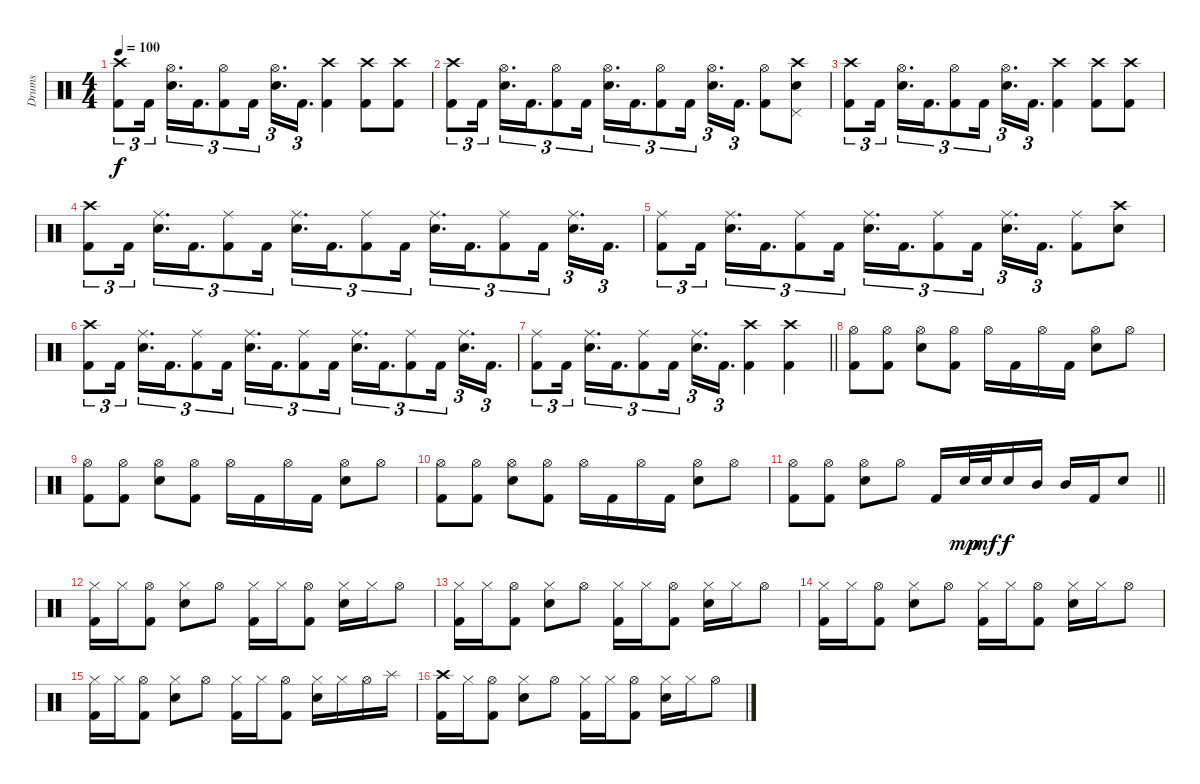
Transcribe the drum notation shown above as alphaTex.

\track ("Drums" "Drums") {instrument percussion}
\staff {score}
\articulation defaults
\ts (4 4)
\tempo 100
\clef neutral
\ks c
("Kick (hit) 2" "Crash high (hit)").8{tu (3 2) dy f} "Kick (hit) 2".16{tu (3 2) beam splitsecondary} ("Hi-Hat (open)" "Electric Snare (hit)").16{d tu (3 2)} "Kick (hit) 2".16{d tu (3 2)} ("Kick (hit) 2" "Hi-Hat (open)").8{tu (3 2)} "Kick (hit) 2".16{tu (3 2) beam splitsecondary} ("Hi-Hat (open)" "Electric Snare (hit)").16{d tu (3 2)} "Kick (hit) 2".16{d tu (3 2)} ("Kick (hit) 2" "Crash high (hit)").4 ("Kick (hit) 2" "Crash high (hit)").8 ("Kick (hit) 2" "Crash high (hit)").8 |
("Kick (hit) 2" "Crash high (hit)").8{tu (3 2)} "Kick (hit) 2".16{tu (3 2) beam splitsecondary} ("Hi-Hat (open)" "Electric Snare (hit)").16{d tu (3 2)} "Kick (hit) 2".16{d tu (3 2)} ("Kick (hit) 2" "Hi-Hat (open)").8{tu (3 2)} "Kick (hit) 2".16{tu (3 2) beam splitsecondary} ("Hi-Hat (open)" "Electric Snare (hit)").16{d tu (3 2)} "Kick (hit) 2".16{d tu (3 2)} ("Kick (hit) 2" "Hi-Hat (open)").8{tu (3 2)} "Kick (hit) 2".16{tu (3 2) beam splitsecondary} ("Hi-Hat (open)" "Electric Snare (hit)").16{d tu (3 2)} "Kick (hit) 2".16{d tu (3 2)} ("Kick (hit) 2" "Hi-Hat (open)").8 ("Crash high (hit)" "Electric Snare (hit)" "Pedal Hi-Hat (hit)").8 |
("Kick (hit) 2" "Crash high (hit)").8{tu (3 2)} "Kick (hit) 2".16{tu (3 2) beam splitsecondary} ("Hi-Hat (open)" "Electric Snare (hit)").16{d tu (3 2)} "Kick (hit) 2".16{d tu (3 2)} ("Kick (hit) 2" "Hi-Hat (open)").8{tu (3 2)} "Kick (hit) 2".16{tu (3 2) beam splitsecondary} ("Hi-Hat (open)" "Electric Snare (hit)").16{d tu (3 2)} "Kick (hit) 2".16{d tu (3 2)} ("Kick (hit) 2" "Crash high (hit)").4 ("Kick (hit) 2" "Crash high (hit)").8 ("Kick (hit) 2" "Crash high (hit)").8 |
("Kick (hit) 2" "Crash high (hit)").8{tu (3 2)} "Kick (hit) 2".16{tu (3 2) beam splitsecondary} ("Electric Snare (hit)" "Ride (middle)").16{d tu (3 2)} "Kick (hit) 2".16{d tu (3 2)} ("Kick (hit) 2" "Ride (middle)").8{tu (3 2)} "Kick (hit) 2".16{tu (3 2) beam splitsecondary} ("Electric Snare (hit)" "Ride (middle)").16{d tu (3 2)} "Kick (hit) 2".16{d tu (3 2)} ("Kick (hit) 2" "Ride (middle)").8{tu (3 2)} "Kick (hit) 2".16{tu (3 2) beam splitsecondary} ("Electric Snare (hit)" "Ride (middle)").16{d tu (3 2)} "Kick (hit) 2".16{d tu (3 2)} ("Kick (hit) 2" "Ride (middle)").8{tu (3 2)} "Kick (hit) 2".16{tu (3 2) beam splitsecondary} ("Electric Snare (hit)" "Ride (middle)").16{d tu (3 2)} "Kick (hit) 2".16{d tu (3 2)} |
("Kick (hit) 2" "Ride (middle)").8{tu (3 2)} "Kick (hit) 2".16{tu (3 2) beam splitsecondary} ("Electric Snare (hit)" "Ride (middle)").16{d tu (3 2)} "Kick (hit) 2".16{d tu (3 2)} ("Kick (hit) 2" "Ride (middle)").8{tu (3 2)} "Kick (hit) 2".16{tu (3 2) beam splitsecondary} ("Electric Snare (hit)" "Ride (middle)").16{d tu (3 2)} "Kick (hit) 2".16{d tu (3 2)} ("Kick (hit) 2" "Ride (middle)").8{tu (3 2)} "Kick (hit) 2".16{tu (3 2) beam splitsecondary} ("Electric Snare (hit)" "Ride (middle)").16{d tu (3 2)} "Kick (hit) 2".16{d tu (3 2)} ("Kick (hit) 2" "Ride (middle)").8 ("Crash high (hit)" "Electric Snare (hit)").8 |
("Kick (hit) 2" "Crash high (hit)").8{tu (3 2)} "Kick (hit) 2".16{tu (3 2) beam splitsecondary} ("Electric Snare (hit)" "Ride (middle)").16{d tu (3 2)} "Kick (hit) 2".16{d tu (3 2)} ("Kick (hit) 2" "Ride (middle)").8{tu (3 2)} "Kick (hit) 2".16{tu (3 2) beam splitsecondary} ("Electric Snare (hit)" "Ride (middle)").16{d tu (3 2)} "Kick (hit) 2".16{d tu (3 2)} ("Kick (hit) 2" "Ride (middle)").8{tu (3 2)} "Kick (hit) 2".16{tu (3 2) beam splitsecondary} ("Electric Snare (hit)" "Ride (middle)").16{d tu (3 2)} "Kick (hit) 2".16{d tu (3 2)} ("Kick (hit) 2" "Ride (middle)").8{tu (3 2)} "Kick (hit) 2".16{tu (3 2) beam splitsecondary} ("Electric Snare (hit)" "Ride (middle)").16{d tu (3 2)} "Kick (hit) 2".16{d tu (3 2)} |
\barLineRight lightlight
("Kick (hit) 2" "Ride (middle)").8{tu (3 2)} "Kick (hit) 2".16{tu (3 2) beam splitsecondary} ("Electric Snare (hit)" "Ride (middle)").16{d tu (3 2)} "Kick (hit) 2".16{d tu (3 2)} ("Kick (hit) 2" "Ride (middle)").8{tu (3 2)} "Kick (hit) 2".16{tu (3 2) beam splitsecondary} ("Electric Snare (hit)" "Ride (middle)").16{d tu (3 2)} "Kick (hit) 2".16{d tu (3 2)} ("Kick (hit) 2" "Crash high (hit)").4 ("Kick (hit) 2" "Crash high (hit)").4 |
("Hi-Hat (open)" "Kick (hit) 2").8 ("Hi-Hat (open)" "Kick (hit) 2").8 ("Hi-Hat (open)" "Electric Snare (hit)").8 ("Hi-Hat (open)" "Kick (hit) 2").8 "Hi-Hat (open)".16 "Kick (hit) 2".16 "Hi-Hat (open)".16 "Kick (hit) 2".16 ("Hi-Hat (open)" "Electric Snare (hit)").8 "Hi-Hat (open)".8 |
("Hi-Hat (open)" "Kick (hit) 2").8 ("Hi-Hat (open)" "Kick (hit) 2").8 ("Hi-Hat (open)" "Electric Snare (hit)").8 ("Hi-Hat (open)" "Kick (hit) 2").8 "Hi-Hat (open)".16 "Kick (hit) 2".16 "Hi-Hat (open)".16 "Kick (hit) 2".16 ("Hi-Hat (open)" "Electric Snare (hit)").8 "Hi-Hat (open)".8 |
("Hi-Hat (open)" "Kick (hit) 2").8 ("Hi-Hat (open)" "Kick (hit) 2").8 ("Hi-Hat (open)" "Electric Snare (hit)").8 ("Hi-Hat (open)" "Kick (hit) 2").8 "Hi-Hat (open)".16 "Kick (hit) 2".16 "Hi-Hat (open)".16 "Kick (hit) 2".16 ("Hi-Hat (open)" "Electric Snare (hit)").8 "Hi-Hat (open)".8 |
\barLineRight lightlight
("Hi-Hat (open)" "Kick (hit) 2").8 ("Hi-Hat (open)" "Kick (hit) 2").8 ("Hi-Hat (open)" "Electric Snare (hit)").8 "Hi-Hat (open)".8 "Kick (hit) 2".16 "Electric Snare (hit)".32{dy mp} "Electric Snare (hit)".32{dy mf} "Electric Snare (hit)".16{dy f} "Mid Tom (hit)".16 "Mid Tom (hit)".16 "Kick (hit) 2".16 "Electric Snare (hit)".8 |
("Hi-Hat (closed)" "Kick (hit) 2").16 "Hi-Hat (closed)".16 ("Hi-Hat (open)" "Kick (hit) 2").8 ("Hi-Hat (closed)" "Electric Snare (hit)").8 "Hi-Hat (open)".8 ("Hi-Hat (closed)" "Kick (hit) 2").16 "Hi-Hat (closed)".16 ("Hi-Hat (open)" "Kick (hit) 2").8 ("Hi-Hat (closed)" "Electric Snare (hit)").16 "Hi-Hat (closed)".16 "Hi-Hat (open)".8 |
("Hi-Hat (closed)" "Kick (hit) 2").16 "Hi-Hat (closed)".16 ("Hi-Hat (open)" "Kick (hit) 2").8 ("Hi-Hat (closed)" "Electric Snare (hit)").8 "Hi-Hat (open)".8 ("Hi-Hat (closed)" "Kick (hit) 2").16 "Hi-Hat (closed)".16 ("Hi-Hat (open)" "Kick (hit) 2").8 ("Hi-Hat (closed)" "Electric Snare (hit)").16 "Hi-Hat (closed)".16 "Hi-Hat (open)".8 |
("Hi-Hat (closed)" "Kick (hit) 2").16 "Hi-Hat (closed)".16 ("Hi-Hat (open)" "Kick (hit) 2").8 ("Hi-Hat (closed)" "Electric Snare (hit)").8 "Hi-Hat (open)".8 ("Hi-Hat (closed)" "Kick (hit) 2").16 "Hi-Hat (closed)".16 ("Hi-Hat (open)" "Kick (hit) 2").8 ("Hi-Hat (closed)" "Electric Snare (hit)").16 "Hi-Hat (closed)".16 "Hi-Hat (open)".8 |
("Hi-Hat (closed)" "Kick (hit) 2").16 "Hi-Hat (closed)".16 ("Hi-Hat (open)" "Kick (hit) 2").8 ("Hi-Hat (closed)" "Electric Snare (hit)").8 "Hi-Hat (open)".8 ("Hi-Hat (closed)" "Kick (hit) 2").16 "Hi-Hat (closed)".16 ("Hi-Hat (open)" "Kick (hit) 2").8 ("Hi-Hat (closed)" "Electric Snare (hit)").16 "Hi-Hat (closed)".16 "Hi-Hat (open)".16 "Splash (hit)".16 |
("Crash high (hit)" "Kick (hit) 2").16 "Hi-Hat (closed)".16 ("Hi-Hat (open)" "Kick (hit) 2").8 ("Hi-Hat (closed)" "Electric Snare (hit)").8 "Hi-Hat (open)".8 ("Hi-Hat (closed)" "Kick (hit) 2").16 "Hi-Hat (closed)".16 ("Hi-Hat (open)" "Kick (hit) 2").8 ("Hi-Hat (closed)" "Electric Snare (hit)").16 "Hi-Hat (closed)".16 "Hi-Hat (open)".8
